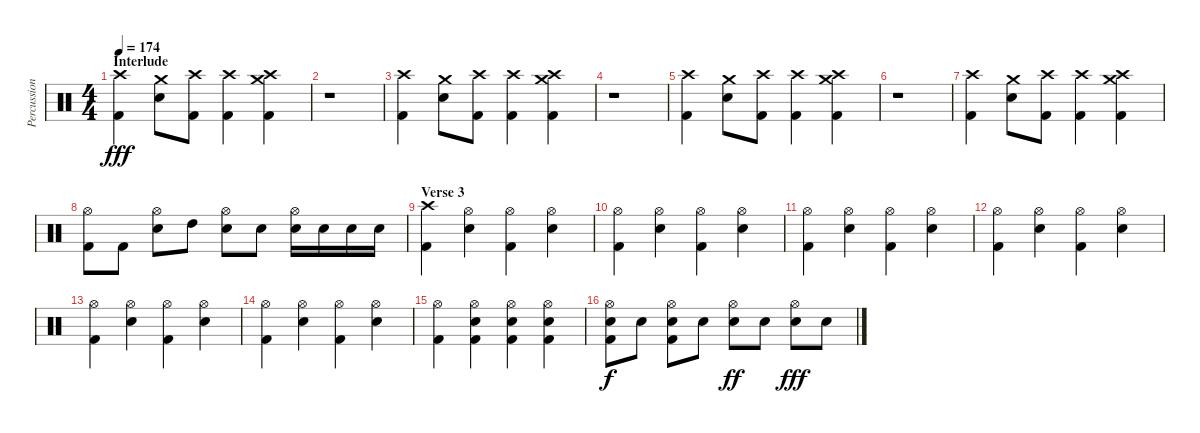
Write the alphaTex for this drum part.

\track ("Percussion" "Percussion") {instrument percussion}
\staff {score}
\articulation defaults
\ts (4 4)
\section ("" "Interlude")
\tempo 174
\clef neutral
\ks c
("Crash high (hit)" "Kick (hit) 2").4{dy fff} ("Crash medium (hit)" "Electric Snare (hit)").8 ("Crash high (hit)" "Kick (hit) 2").8 ("Crash high (hit)" "Kick (hit) 2").4 ("Crash medium (hit)" "Crash high (hit)" "Kick (hit) 2").4 |
r.1 |
("Crash high (hit)" "Kick (hit) 2").4 ("Crash medium (hit)" "Electric Snare (hit)").8 ("Crash high (hit)" "Kick (hit) 2").8 ("Crash high (hit)" "Kick (hit) 2").4 ("Crash medium (hit)" "Crash high (hit)" "Kick (hit) 2").4 |
r.1 |
("Crash high (hit)" "Kick (hit) 2").4 ("Crash medium (hit)" "Electric Snare (hit)").8 ("Crash high (hit)" "Kick (hit) 2").8 ("Crash high (hit)" "Kick (hit) 2").4 ("Crash medium (hit)" "Crash high (hit)" "Kick (hit) 2").4 |
r.1 |
("Crash high (hit)" "Kick (hit) 2").4 ("Crash medium (hit)" "Electric Snare (hit)").8 ("Crash high (hit)" "Kick (hit) 2").8 ("Crash high (hit)" "Kick (hit) 2").4 ("Crash medium (hit)" "Crash high (hit)" "Kick (hit) 2").4 |
("Hi-Hat (open)" "Kick (hit) 2").8 "Kick (hit) 2".8 ("Hi-Hat (open)" "Electric Snare (hit)").8 "High Tom (hit)".8 ("Hi-Hat (open)" "Electric Snare (hit)").8 "Electric Snare (hit)".8 ("Hi-Hat (open)" "Electric Snare (hit)").16 "Electric Snare (hit)".16 "Electric Snare (hit)".16 "Electric Snare (hit)".16 |
\section ("" "Verse 3")
("Crash high (hit)" "Kick (hit) 2").4 ("Hi-Hat (open)" "Electric Snare (hit)").4 ("Hi-Hat (open)" "Kick (hit) 2").4 ("Hi-Hat (open)" "Electric Snare (hit)").4 |
("Hi-Hat (open)" "Kick (hit) 2").4 ("Hi-Hat (open)" "Electric Snare (hit)").4 ("Hi-Hat (open)" "Kick (hit) 2").4 ("Hi-Hat (open)" "Electric Snare (hit)").4 |
("Hi-Hat (open)" "Kick (hit) 2").4 ("Hi-Hat (open)" "Electric Snare (hit)").4 ("Hi-Hat (open)" "Kick (hit) 2").4 ("Hi-Hat (open)" "Electric Snare (hit)").4 |
("Hi-Hat (open)" "Kick (hit) 2").4 ("Hi-Hat (open)" "Electric Snare (hit)").4 ("Hi-Hat (open)" "Kick (hit) 2").4 ("Hi-Hat (open)" "Electric Snare (hit)").4 |
("Hi-Hat (open)" "Kick (hit) 2").4 ("Hi-Hat (open)" "Electric Snare (hit)").4 ("Hi-Hat (open)" "Kick (hit) 2").4 ("Hi-Hat (open)" "Electric Snare (hit)").4 |
("Hi-Hat (open)" "Kick (hit) 2").4 ("Hi-Hat (open)" "Electric Snare (hit)").4 ("Hi-Hat (open)" "Kick (hit) 2").4 ("Hi-Hat (open)" "Electric Snare (hit)").4 |
("Hi-Hat (open)" "Kick (hit) 2").4 ("Hi-Hat (open)" "Electric Snare (hit)" "Kick (hit) 2").4 ("Hi-Hat (open)" "Electric Snare (hit)" "Kick (hit) 2").4 ("Hi-Hat (open)" "Electric Snare (hit)" "Kick (hit) 2").4 |
("Hi-Hat (open)" "Electric Snare (hit)" "Kick (hit) 2").8{dy f} "Electric Snare (hit)".8 ("Hi-Hat (open)" "Electric Snare (hit)" "Kick (hit) 2").8 "Electric Snare (hit)".8 ("Hi-Hat (open)" "Electric Snare (hit)").8{dy ff} "Electric Snare (hit)".8 ("Hi-Hat (open)" "Electric Snare (hit)").8{dy fff} "Electric Snare (hit)".8
